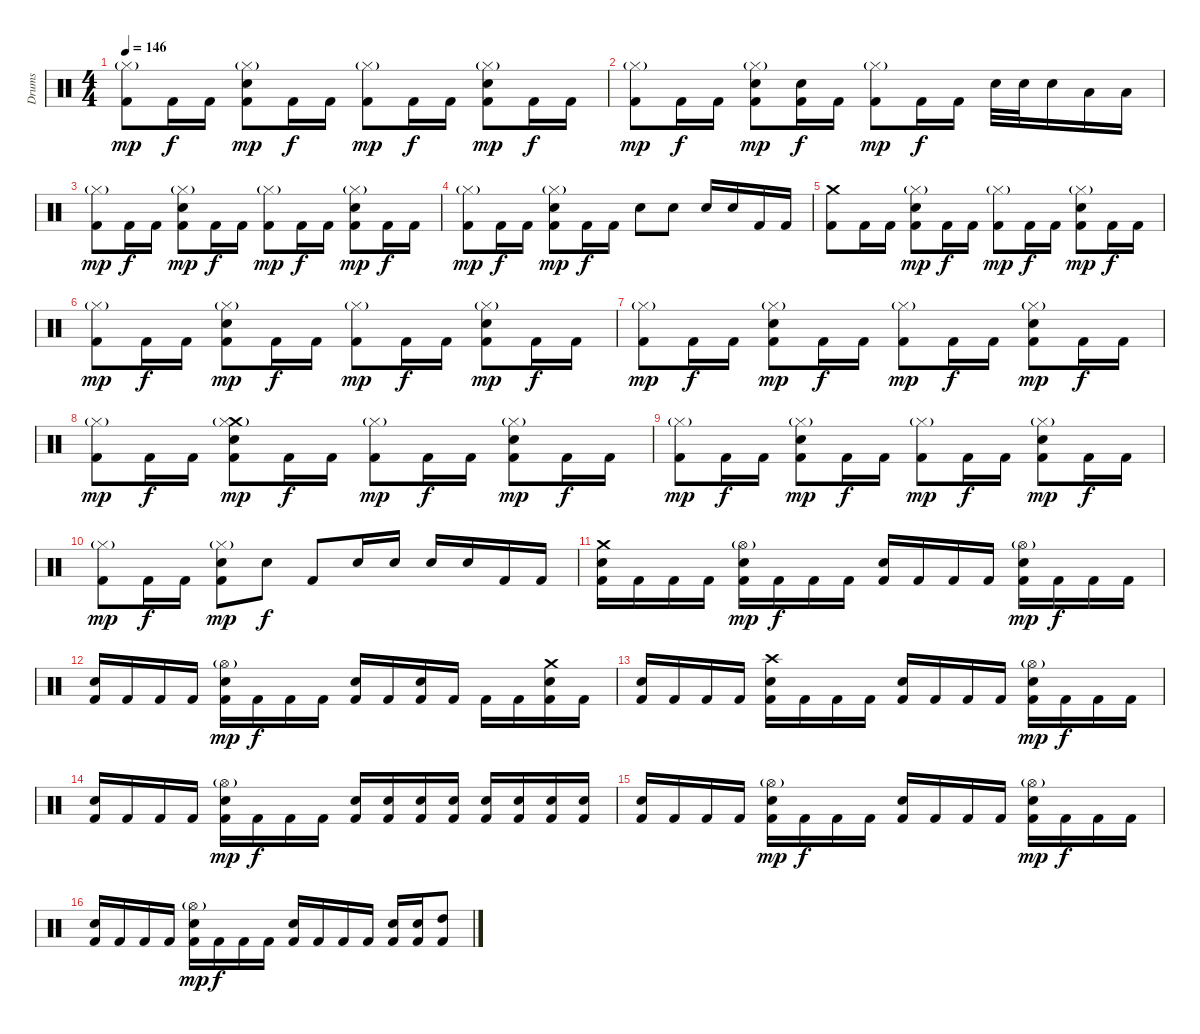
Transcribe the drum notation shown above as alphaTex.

\track ("Drums" "Drums") {instrument percussion}
\staff {score}
\articulation defaults
\ts (4 4)
\tempo 146
\clef neutral
\ks c
("Hi-Hat (closed)"{g} "Kick (hit) 2").8{dy mp} "Kick (hit) 2".16{dy f} "Kick (hit) 2".16 ("Snare (hit) 2" "Hi-Hat (closed)"{g} "Kick (hit) 2").8{dy mp} "Kick (hit) 2".16{dy f} "Kick (hit) 2".16 ("Hi-Hat (closed)"{g} "Kick (hit) 2").8{dy mp} "Kick (hit) 2".16{dy f} "Kick (hit) 2".16 ("Snare (hit) 2" "Hi-Hat (closed)"{g} "Kick (hit) 2").8{dy mp} "Kick (hit) 2".16{dy f} "Kick (hit) 2".16 |
("Hi-Hat (closed)"{g} "Kick (hit) 2").8{dy mp} "Kick (hit) 2".16{dy f} "Kick (hit) 2".16 ("Snare (hit) 2" "Hi-Hat (closed)"{g} "Kick (hit) 2").8{dy mp} ("Snare (hit) 2" "Kick (hit) 2").16{dy f} "Kick (hit) 2".16 ("Hi-Hat (closed)"{g} "Kick (hit) 2").8{dy mp} "Kick (hit) 2".16{dy f} "Kick (hit) 2".16 "Snare (hit) 2".32 "Snare (hit) 2".32 "Snare (hit) 2".16 "Low Tom (hit)".16 "Low Tom (hit)".16 |
("Hi-Hat (closed)"{g} "Kick (hit) 2").8{dy mp} "Kick (hit) 2".16{dy f} "Kick (hit) 2".16 ("Snare (hit) 2" "Hi-Hat (closed)"{g} "Kick (hit) 2").8{dy mp} "Kick (hit) 2".16{dy f} "Kick (hit) 2".16 ("Hi-Hat (closed)"{g} "Kick (hit) 2").8{dy mp} "Kick (hit) 2".16{dy f} "Kick (hit) 2".16 ("Snare (hit) 2" "Hi-Hat (closed)"{g} "Kick (hit) 2").8{dy mp} "Kick (hit) 2".16{dy f} "Kick (hit) 2".16 |
("Hi-Hat (closed)"{g} "Kick (hit) 2").8{dy mp} "Kick (hit) 2".16{dy f} "Kick (hit) 2".16 ("Snare (hit) 2" "Hi-Hat (closed)"{g} "Kick (hit) 2").8{dy mp} "Kick (hit) 2".16{dy f} "Kick (hit) 2".16 "Snare (hit) 2".8 "Snare (hit) 2".8 "Snare (hit) 2".16 "Snare (hit) 2".16 "Kick (hit) 2".16 "Kick (hit) 2".16 |
("Crash medium (hit)" "Kick (hit) 2").8 "Kick (hit) 2".16 "Kick (hit) 2".16 ("Snare (hit) 2" "Hi-Hat (closed)"{g} "Kick (hit) 2").8{dy mp} "Kick (hit) 2".16{dy f} "Kick (hit) 2".16 ("Hi-Hat (closed)"{g} "Kick (hit) 2").8{dy mp} "Kick (hit) 2".16{dy f} "Kick (hit) 2".16 ("Snare (hit) 2" "Hi-Hat (closed)"{g} "Kick (hit) 2").8{dy mp} "Kick (hit) 2".16{dy f} "Kick (hit) 2".16 |
("Hi-Hat (closed)"{g} "Kick (hit) 2").8{dy mp} "Kick (hit) 2".16{dy f} "Kick (hit) 2".16 ("Snare (hit) 2" "Hi-Hat (closed)"{g} "Kick (hit) 2").8{dy mp} "Kick (hit) 2".16{dy f} "Kick (hit) 2".16 ("Hi-Hat (closed)"{g} "Kick (hit) 2").8{dy mp} "Kick (hit) 2".16{dy f} "Kick (hit) 2".16 ("Snare (hit) 2" "Hi-Hat (closed)"{g} "Kick (hit) 2").8{dy mp} "Kick (hit) 2".16{dy f} "Kick (hit) 2".16 |
("Hi-Hat (closed)"{g} "Kick (hit) 2").8{dy mp} "Kick (hit) 2".16{dy f} "Kick (hit) 2".16 ("Snare (hit) 2" "Hi-Hat (closed)"{g} "Kick (hit) 2").8{dy mp} "Kick (hit) 2".16{dy f} "Kick (hit) 2".16 ("Hi-Hat (closed)"{g} "Kick (hit) 2").8{dy mp} "Kick (hit) 2".16{dy f} "Kick (hit) 2".16 ("Snare (hit) 2" "Hi-Hat (closed)"{g} "Kick (hit) 2").8{dy mp} "Kick (hit) 2".16{dy f} "Kick (hit) 2".16 |
("Hi-Hat (closed)"{g} "Kick (hit) 2").8{dy mp} "Kick (hit) 2".16{dy f} "Kick (hit) 2".16 ("Crash medium (hit)" "Snare (hit) 2" "Hi-Hat (closed)"{g} "Kick (hit) 2").8{dy mp} "Kick (hit) 2".16{dy f} "Kick (hit) 2".16 ("Hi-Hat (closed)"{g} "Kick (hit) 2").8{dy mp} "Kick (hit) 2".16{dy f} "Kick (hit) 2".16 ("Snare (hit) 2" "Hi-Hat (closed)"{g} "Kick (hit) 2").8{dy mp} "Kick (hit) 2".16{dy f} "Kick (hit) 2".16 |
("Hi-Hat (closed)"{g} "Kick (hit) 2").8{dy mp} "Kick (hit) 2".16{dy f} "Kick (hit) 2".16 ("Snare (hit) 2" "Hi-Hat (closed)"{g} "Kick (hit) 2").8{dy mp} "Kick (hit) 2".16{dy f} "Kick (hit) 2".16 ("Hi-Hat (closed)"{g} "Kick (hit) 2").8{dy mp} "Kick (hit) 2".16{dy f} "Kick (hit) 2".16 ("Snare (hit) 2" "Hi-Hat (closed)"{g} "Kick (hit) 2").8{dy mp} "Kick (hit) 2".16{dy f} "Kick (hit) 2".16 |
("Hi-Hat (closed)"{g} "Kick (hit) 2").8{dy mp} "Kick (hit) 2".16{dy f} "Kick (hit) 2".16 ("Snare (hit) 2" "Hi-Hat (closed)"{g} "Kick (hit) 2").8{dy mp} "Snare (hit) 2".8{dy f} "Kick (hit) 2".8 "Snare (hit) 2".16 "Snare (hit) 2".16 "Snare (hit) 2".16 "Snare (hit) 2".16 "Kick (hit) 2".16 "Kick (hit) 2".16 |
("Crash medium (hit)" "Snare (hit) 2" "Kick (hit) 2").16 "Kick (hit) 2".16 "Kick (hit) 2".16 "Kick (hit) 2".16 ("Snare (hit) 2" "Hi-Hat (open)"{g} "Kick (hit) 2").16{dy mp} "Kick (hit) 2".16{dy f} "Kick (hit) 2".16 "Kick (hit) 2".16 ("Snare (hit) 2" "Kick (hit) 2").16 "Kick (hit) 2".16 "Kick (hit) 2".16 "Kick (hit) 2".16 ("Snare (hit) 2" "Hi-Hat (open)"{g} "Kick (hit) 2").16{dy mp} "Kick (hit) 2".16{dy f} "Kick (hit) 2".16 "Kick (hit) 2".16 |
("Snare (hit) 2" "Kick (hit) 2").16 "Kick (hit) 2".16 "Kick (hit) 2".16 "Kick (hit) 2".16 ("Snare (hit) 2" "Hi-Hat (open)"{g} "Kick (hit) 2").16{dy mp} "Kick (hit) 2".16{dy f} "Kick (hit) 2".16 "Kick (hit) 2".16 ("Snare (hit) 2" "Kick (hit) 2").16 "Kick (hit) 2".16 ("Snare (hit) 2" "Kick (hit) 2").16 "Kick (hit) 2".16 "Kick (hit) 2".16 "Kick (hit) 2".16 ("Crash medium (hit)" "Snare (hit) 2" "Kick (hit) 2").16 "Kick (hit) 2".16 |
("Snare (hit) 2" "Kick (hit) 2").16 "Kick (hit) 2".16 "Kick (hit) 2".16 "Kick (hit) 2".16 ("Crash high (hit)" "Snare (hit) 2" "Kick (hit) 2").16 "Kick (hit) 2".16 "Kick (hit) 2".16 "Kick (hit) 2".16 ("Snare (hit) 2" "Kick (hit) 2").16 "Kick (hit) 2".16 "Kick (hit) 2".16 "Kick (hit) 2".16 ("Snare (hit) 2" "Hi-Hat (open)"{g} "Kick (hit) 2").16{dy mp} "Kick (hit) 2".16{dy f} "Kick (hit) 2".16 "Kick (hit) 2".16 |
("Snare (hit) 2" "Kick (hit) 2").16 "Kick (hit) 2".16 "Kick (hit) 2".16 "Kick (hit) 2".16 ("Snare (hit) 2" "Hi-Hat (open)"{g} "Kick (hit) 2").16{dy mp} "Kick (hit) 2".16{dy f} "Kick (hit) 2".16 "Kick (hit) 2".16 ("Snare (hit) 2" "Kick (hit) 2").16 ("Snare (hit) 2" "Kick (hit) 2").16 ("Snare (hit) 2" "Kick (hit) 2").16 ("Snare (hit) 2" "Kick (hit) 2").16 ("Snare (hit) 2" "Kick (hit) 2").16 ("Snare (hit) 2" "Kick (hit) 2").16 ("Snare (hit) 2" "Kick (hit) 2").16 ("Snare (hit) 2" "Kick (hit) 2").16 |
("Snare (hit) 2" "Kick (hit) 2").16 "Kick (hit) 2".16 "Kick (hit) 2".16 "Kick (hit) 2".16 ("Snare (hit) 2" "Hi-Hat (open)"{g} "Kick (hit) 2").16{dy mp} "Kick (hit) 2".16{dy f} "Kick (hit) 2".16 "Kick (hit) 2".16 ("Snare (hit) 2" "Kick (hit) 2").16 "Kick (hit) 2".16 "Kick (hit) 2".16 "Kick (hit) 2".16 ("Snare (hit) 2" "Hi-Hat (open)"{g} "Kick (hit) 2").16{dy mp} "Kick (hit) 2".16{dy f} "Kick (hit) 2".16 "Kick (hit) 2".16 |
("Snare (hit) 2" "Kick (hit) 2").16 "Kick (hit) 2".16 "Kick (hit) 2".16 "Kick (hit) 2".16 ("Snare (hit) 2" "Hi-Hat (open)"{g} "Kick (hit) 2").16{dy mp} "Kick (hit) 2".16{dy f} "Kick (hit) 2".16 "Kick (hit) 2".16 ("Snare (hit) 2" "Kick (hit) 2").16 "Kick (hit) 2".16 "Kick (hit) 2".16 "Kick (hit) 2".16 ("Snare (hit) 2" "Kick (hit) 2").16 ("Snare (hit) 2" "Kick (hit) 2").16 ("High Tom (hit)" "Kick (hit) 2").8
